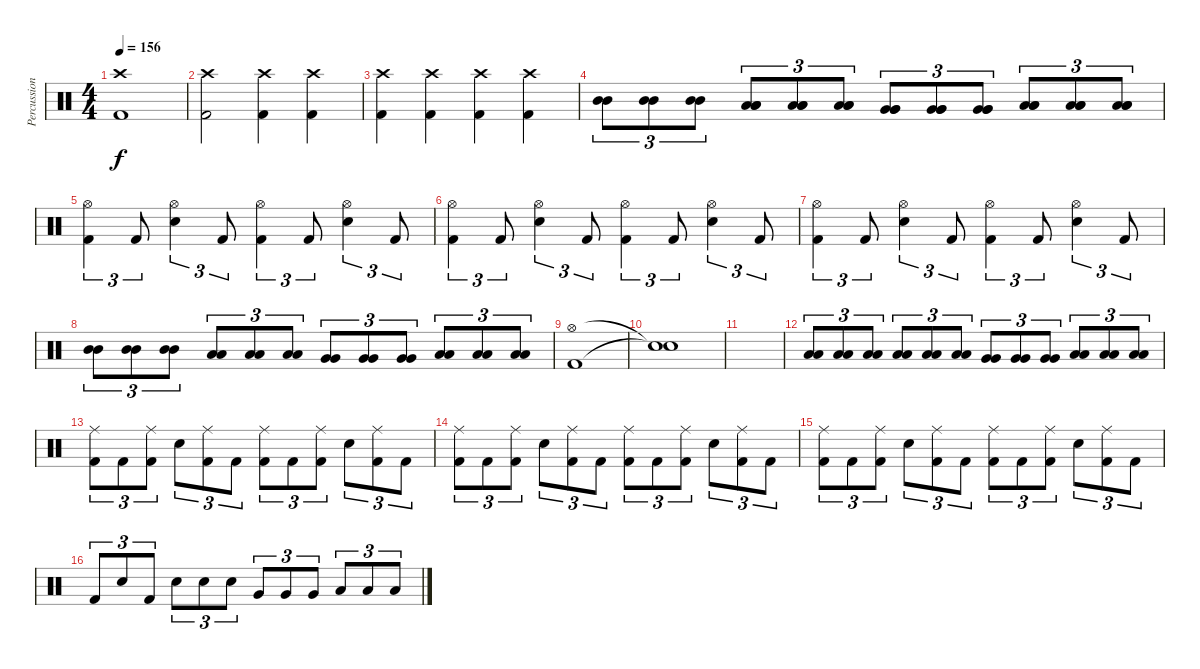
\track ("Percussion" "Percussion") {instrument percussion}
\staff {score}
\articulation defaults
\ts (4 4)
\tempo 156
\clef neutral
\ks c
("Crash high (hit)" "Kick (hit) 2").1{dy f} |
("Crash high (hit)" "Kick (hit) 2").2 ("Crash high (hit)" "Kick (hit) 2").4 ("Crash high (hit)" "Kick (hit) 2").4 |
("Crash high (hit)" "Kick (hit) 2").4 ("Crash high (hit)" "Kick (hit) 2").4 ("Crash high (hit)" "Kick (hit) 2").4 ("Crash high (hit)" "Kick (hit) 2").4 |
("Mid Tom (hit)" "Mid Tom (hit)").8{tu (3 2)} ("Mid Tom (hit)" "Mid Tom (hit)").8{tu (3 2)} ("Mid Tom (hit)" "Mid Tom (hit)").8{tu (3 2)} ("Low Tom (hit)" "Low Tom (hit)" "Low Tom (hit)").8{tu (3 2)} ("Low Tom (hit)" "Low Tom (hit)" "Low Tom (hit)").8{tu (3 2)} ("Low Tom (hit)" "Low Tom (hit)" "Low Tom (hit)").8{tu (3 2)} ("Very Low Tom (hit)" "Very Low Tom (hit)" "Very Low Tom (hit)").8{tu (3 2)} ("Very Low Tom (hit)" "Very Low Tom (hit)" "Very Low Tom (hit)").8{tu (3 2)} ("Very Low Tom (hit)" "Very Low Tom (hit)" "Very Low Tom (hit)").8{tu (3 2)} ("Low Floor Tom (hit)" "Low Floor Tom (hit)" "Low Floor Tom (hit)").8{tu (3 2)} ("Low Floor Tom (hit)" "Low Floor Tom (hit)" "Low Floor Tom (hit)").8{tu (3 2)} ("Low Floor Tom (hit)" "Low Floor Tom (hit)" "Low Floor Tom (hit)").8{tu (3 2)} |
("Hi-Hat (open)" "Kick (hit) 2").4{tu (3 2)} "Kick (hit) 2".8{tu (3 2)} ("Electric Snare (hit)" "Hi-Hat (open)").4{tu (3 2)} "Kick (hit) 2".8{tu (3 2)} ("Hi-Hat (open)" "Kick (hit) 2").4{tu (3 2)} "Kick (hit) 2".8{tu (3 2)} ("Electric Snare (hit)" "Hi-Hat (open)").4{tu (3 2)} "Kick (hit) 2".8{tu (3 2)} |
("Hi-Hat (open)" "Kick (hit) 2").4{tu (3 2)} "Kick (hit) 2".8{tu (3 2)} ("Electric Snare (hit)" "Hi-Hat (open)").4{tu (3 2)} "Kick (hit) 2".8{tu (3 2)} ("Hi-Hat (open)" "Kick (hit) 2").4{tu (3 2)} "Kick (hit) 2".8{tu (3 2)} ("Electric Snare (hit)" "Hi-Hat (open)").4{tu (3 2)} "Kick (hit) 2".8{tu (3 2)} |
("Hi-Hat (open)" "Kick (hit) 2").4{tu (3 2)} "Kick (hit) 2".8{tu (3 2)} ("Electric Snare (hit)" "Hi-Hat (open)").4{tu (3 2)} "Kick (hit) 2".8{tu (3 2)} ("Hi-Hat (open)" "Kick (hit) 2").4{tu (3 2)} "Kick (hit) 2".8{tu (3 2)} ("Electric Snare (hit)" "Hi-Hat (open)").4{tu (3 2)} "Kick (hit) 2".8{tu (3 2)} |
("Mid Tom (hit)" "Mid Tom (hit)").8{tu (3 2)} ("Mid Tom (hit)" "Mid Tom (hit)").8{tu (3 2)} ("Mid Tom (hit)" "Mid Tom (hit)").8{tu (3 2)} ("Low Tom (hit)" "Low Tom (hit)").8{tu (3 2)} ("Low Tom (hit)" "Low Tom (hit)").8{tu (3 2)} ("Low Tom (hit)" "Low Tom (hit)").8{tu (3 2)} ("Very Low Tom (hit)" "Very Low Tom (hit)").8{tu (3 2)} ("Very Low Tom (hit)" "Very Low Tom (hit)").8{tu (3 2)} ("Very Low Tom (hit)" "Very Low Tom (hit)").8{tu (3 2)} ("Low Floor Tom (hit)" "Low Floor Tom (hit)").8{tu (3 2)} ("Low Floor Tom (hit)" "Low Floor Tom (hit)").8{tu (3 2)} ("Low Floor Tom (hit)" "Low Floor Tom (hit)").8{tu (3 2)} |
("Hi-Hat (open)" "Kick (hit) 2").1 |
("Snare (hit)"{t} "Snare (hit)"{t}).1 |
|
("Low Tom (hit)" "Low Tom (hit)").8{tu (3 2)} ("Low Tom (hit)" "Low Tom (hit)").8{tu (3 2)} ("Low Tom (hit)" "Low Tom (hit)").8{tu (3 2)} ("Low Tom (hit)" "Low Tom (hit)").8{tu (3 2)} ("Low Tom (hit)" "Low Tom (hit)").8{tu (3 2)} ("Low Tom (hit)" "Low Tom (hit)").8{tu (3 2)} ("Very Low Tom (hit)" "Very Low Tom (hit)").8{tu (3 2)} ("Very Low Tom (hit)" "Very Low Tom (hit)").8{tu (3 2)} ("Very Low Tom (hit)" "Very Low Tom (hit)").8{tu (3 2)} ("Low Floor Tom (hit)" "Low Floor Tom (hit)").8{tu (3 2)} ("Low Floor Tom (hit)" "Low Floor Tom (hit)").8{tu (3 2)} ("Low Floor Tom (hit)" "Low Floor Tom (hit)").8{tu (3 2)} |
("Ride (middle)" "Kick (hit) 2").8{tu (3 2)} "Kick (hit) 2".8{tu (3 2)} ("Ride (middle)" "Kick (hit) 2").8{tu (3 2)} "Electric Snare (hit)".8{tu (3 2)} ("Ride (middle)" "Kick (hit) 2").8{tu (3 2)} "Kick (hit) 2".8{tu (3 2)} ("Ride (middle)" "Kick (hit) 2").8{tu (3 2)} "Kick (hit) 2".8{tu (3 2)} ("Ride (middle)" "Kick (hit) 2").8{tu (3 2)} "Electric Snare (hit)".8{tu (3 2)} ("Ride (middle)" "Kick (hit) 2").8{tu (3 2)} "Kick (hit) 2".8{tu (3 2)} |
("Ride (middle)" "Kick (hit) 2").8{tu (3 2)} "Kick (hit) 2".8{tu (3 2)} ("Ride (middle)" "Kick (hit) 2").8{tu (3 2)} "Electric Snare (hit)".8{tu (3 2)} ("Ride (middle)" "Kick (hit) 2").8{tu (3 2)} "Kick (hit) 2".8{tu (3 2)} ("Ride (middle)" "Kick (hit) 2").8{tu (3 2)} "Kick (hit) 2".8{tu (3 2)} ("Ride (middle)" "Kick (hit) 2").8{tu (3 2)} "Electric Snare (hit)".8{tu (3 2)} ("Ride (middle)" "Kick (hit) 2").8{tu (3 2)} "Kick (hit) 2".8{tu (3 2)} |
("Ride (middle)" "Kick (hit) 2").8{tu (3 2)} "Kick (hit) 2".8{tu (3 2)} ("Ride (middle)" "Kick (hit) 2").8{tu (3 2)} "Electric Snare (hit)".8{tu (3 2)} ("Ride (middle)" "Kick (hit) 2").8{tu (3 2)} "Kick (hit) 2".8{tu (3 2)} ("Ride (middle)" "Kick (hit) 2").8{tu (3 2)} "Kick (hit) 2".8{tu (3 2)} ("Ride (middle)" "Kick (hit) 2").8{tu (3 2)} "Electric Snare (hit)".8{tu (3 2)} ("Ride (middle)" "Kick (hit) 2").8{tu (3 2)} "Kick (hit) 2".8{tu (3 2)} |
"Kick (hit) 2".8{tu (3 2)} "Electric Snare (hit)".8{tu (3 2)} "Kick (hit) 2".8{tu (3 2)} "Electric Snare (hit)".8{tu (3 2)} "Electric Snare (hit)".8{tu (3 2)} "Electric Snare (hit)".8{tu (3 2)} "Very Low Tom (hit)".8{tu (3 2)} "Very Low Tom (hit)".8{tu (3 2)} "Very Low Tom (hit)".8{tu (3 2)} "Low Floor Tom (hit)".8{tu (3 2)} "Low Floor Tom (hit)".8{tu (3 2)} "Low Floor Tom (hit)".8{tu (3 2)}
